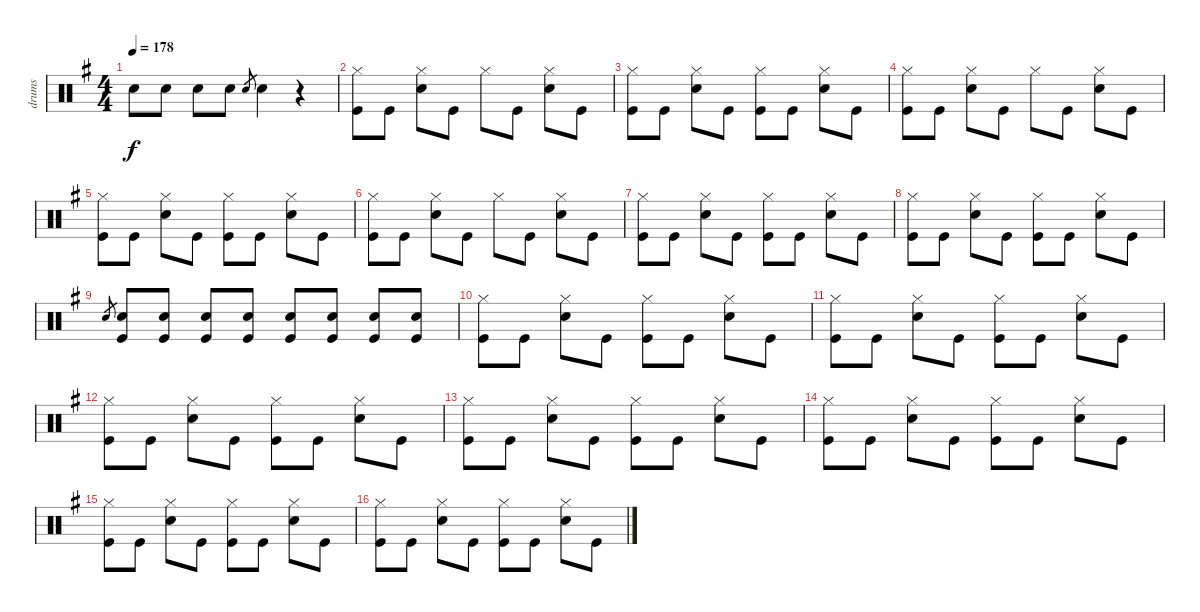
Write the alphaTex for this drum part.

\track ("drums" "drums") {instrument percussion}
\staff {score}
\articulation defaults
\ts (4 4)
\tempo 178
\clef neutral
\ks eminor "Snare (hit) 2".8{dy f} "Snare (hit) 2".8 "Snare (hit) 2".8 "Snare (hit) 2".8 "Snare (hit) 2".8{gr} "Snare (hit) 2".4
r.4 |
("Hi-Hat (closed)" "Kick (hit)").8 "Kick (hit)".8 ("Hi-Hat (closed)" "Snare (hit) 2").8 "Kick (hit)".8 "Hi-Hat (closed)".8 "Kick (hit)".8 ("Hi-Hat (closed)" "Snare (hit) 2").8 "Kick (hit)".8 |
("Hi-Hat (closed)" "Kick (hit)").8 "Kick (hit)".8 ("Hi-Hat (closed)" "Snare (hit) 2").8 "Kick (hit)".8 ("Hi-Hat (closed)" "Kick (hit)").8 "Kick (hit)".8 ("Hi-Hat (closed)" "Snare (hit) 2").8 "Kick (hit)".8 |
("Hi-Hat (closed)" "Kick (hit)").8 "Kick (hit)".8 ("Hi-Hat (closed)" "Snare (hit) 2").8 "Kick (hit)".8 "Hi-Hat (closed)".8 "Kick (hit)".8 ("Hi-Hat (closed)" "Snare (hit) 2").8 "Kick (hit)".8 |
("Hi-Hat (closed)" "Kick (hit)").8 "Kick (hit)".8 ("Hi-Hat (closed)" "Snare (hit) 2").8 "Kick (hit)".8 ("Hi-Hat (closed)" "Kick (hit)").8 "Kick (hit)".8 ("Hi-Hat (closed)" "Snare (hit) 2").8 "Kick (hit)".8 |
("Hi-Hat (closed)" "Kick (hit)").8 "Kick (hit)".8 ("Hi-Hat (closed)" "Snare (hit) 2").8 "Kick (hit)".8 "Hi-Hat (closed)".8 "Kick (hit)".8 ("Hi-Hat (closed)" "Snare (hit) 2").8 "Kick (hit)".8 |
("Hi-Hat (closed)" "Kick (hit)").8 "Kick (hit)".8 ("Hi-Hat (closed)" "Snare (hit) 2").8 "Kick (hit)".8 ("Hi-Hat (closed)" "Kick (hit)").8 "Kick (hit)".8 ("Hi-Hat (closed)" "Snare (hit) 2").8 "Kick (hit)".8 |
("Hi-Hat (closed)" "Kick (hit)").8 "Kick (hit)".8 ("Hi-Hat (closed)" "Snare (hit) 2").8 "Kick (hit)".8 ("Hi-Hat (closed)" "Kick (hit)").8 "Kick (hit)".8 ("Hi-Hat (closed)" "Snare (hit) 2").8 "Kick (hit)".8 |
"Snare (hit) 2".8{gr} ("Snare (hit) 2" "Kick (hit)").8 ("Snare (hit) 2" "Kick (hit)").8 ("Snare (hit) 2" "Kick (hit)").8 ("Snare (hit) 2" "Kick (hit)").8 ("Snare (hit) 2" "Kick (hit)").8 ("Snare (hit) 2" "Kick (hit)").8 ("Snare (hit) 2" "Kick (hit)").8 ("Snare (hit) 2" "Kick (hit)").8 |
("Hi-Hat (closed)" "Kick (hit)").8 "Kick (hit)".8 ("Hi-Hat (closed)" "Snare (hit) 2").8 "Kick (hit)".8 ("Hi-Hat (closed)" "Kick (hit)").8 "Kick (hit)".8 ("Hi-Hat (closed)" "Snare (hit) 2").8 "Kick (hit)".8 |
("Hi-Hat (closed)" "Kick (hit)").8 "Kick (hit)".8 ("Hi-Hat (closed)" "Snare (hit) 2").8 "Kick (hit)".8 ("Hi-Hat (closed)" "Kick (hit)").8 "Kick (hit)".8 ("Hi-Hat (closed)" "Snare (hit) 2").8 "Kick (hit)".8 |
("Hi-Hat (closed)" "Kick (hit)").8 "Kick (hit)".8 ("Hi-Hat (closed)" "Snare (hit) 2").8 "Kick (hit)".8 ("Hi-Hat (closed)" "Kick (hit)").8 "Kick (hit)".8 ("Hi-Hat (closed)" "Snare (hit) 2").8 "Kick (hit)".8 |
("Hi-Hat (closed)" "Kick (hit)").8 "Kick (hit)".8 ("Hi-Hat (closed)" "Snare (hit) 2").8 "Kick (hit)".8 ("Hi-Hat (closed)" "Kick (hit)").8 "Kick (hit)".8 ("Hi-Hat (closed)" "Snare (hit) 2").8 "Kick (hit)".8 |
("Hi-Hat (closed)" "Kick (hit)").8 "Kick (hit)".8 ("Hi-Hat (closed)" "Snare (hit) 2").8 "Kick (hit)".8 ("Hi-Hat (closed)" "Kick (hit)").8 "Kick (hit)".8 ("Hi-Hat (closed)" "Snare (hit) 2").8 "Kick (hit)".8 |
("Hi-Hat (closed)" "Kick (hit)").8 "Kick (hit)".8 ("Hi-Hat (closed)" "Snare (hit) 2").8 "Kick (hit)".8 ("Hi-Hat (closed)" "Kick (hit)").8 "Kick (hit)".8 ("Hi-Hat (closed)" "Snare (hit) 2").8 "Kick (hit)".8 |
("Hi-Hat (closed)" "Kick (hit)").8 "Kick (hit)".8 ("Hi-Hat (closed)" "Snare (hit) 2").8 "Kick (hit)".8 ("Hi-Hat (closed)" "Kick (hit)").8 "Kick (hit)".8 ("Hi-Hat (closed)" "Snare (hit) 2").8 "Kick (hit)".8
